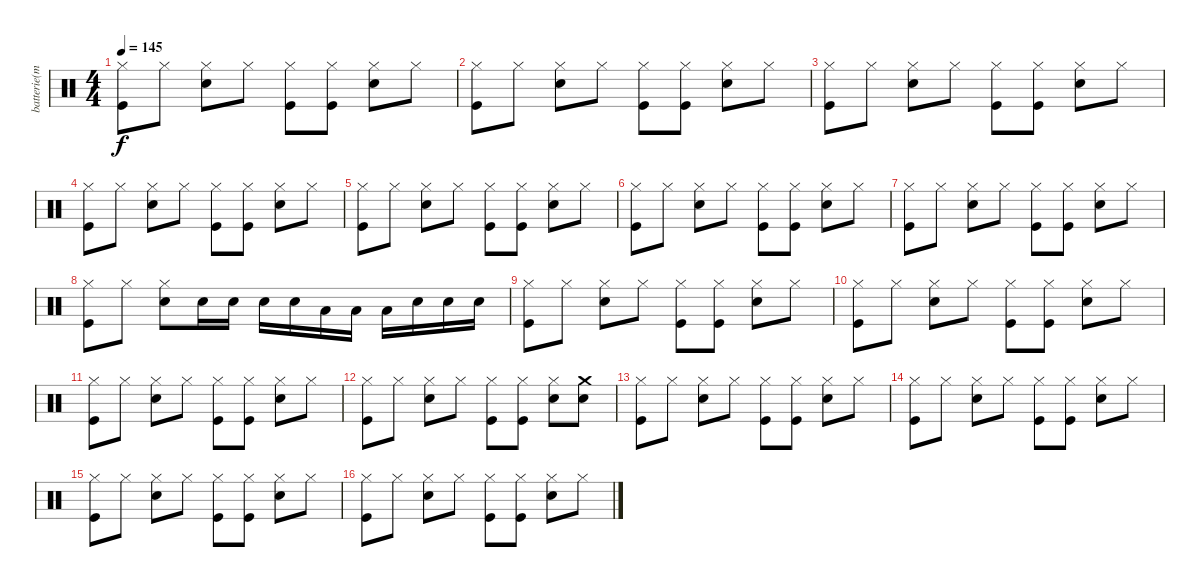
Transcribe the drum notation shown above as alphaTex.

\track ("batterie(micky)" "batterie(m") {instrument percussion}
\staff {score}
\articulation defaults
\ts (4 4)
\tempo 145
\clef neutral
\ks c
("Hi-Hat (closed)" "Kick (hit)").8{dy f} "Hi-Hat (closed)".8 ("Hi-Hat (closed)" "Snare (hit) 2").8 "Hi-Hat (closed)".8 ("Hi-Hat (closed)" "Kick (hit)").8 ("Hi-Hat (closed)" "Kick (hit)").8 ("Hi-Hat (closed)" "Snare (hit) 2").8 "Hi-Hat (closed)".8 |
("Hi-Hat (closed)" "Kick (hit)").8 "Hi-Hat (closed)".8 ("Hi-Hat (closed)" "Snare (hit) 2").8 "Hi-Hat (closed)".8 ("Hi-Hat (closed)" "Kick (hit)").8 ("Hi-Hat (closed)" "Kick (hit)").8 ("Hi-Hat (closed)" "Snare (hit) 2").8 "Hi-Hat (closed)".8 |
("Hi-Hat (closed)" "Kick (hit)").8 "Hi-Hat (closed)".8 ("Hi-Hat (closed)" "Snare (hit) 2").8 "Hi-Hat (closed)".8 ("Hi-Hat (closed)" "Kick (hit)").8 ("Hi-Hat (closed)" "Kick (hit)").8 ("Hi-Hat (closed)" "Snare (hit) 2").8 "Hi-Hat (closed)".8 |
("Hi-Hat (closed)" "Kick (hit)").8 "Hi-Hat (closed)".8 ("Hi-Hat (closed)" "Snare (hit) 2").8 "Hi-Hat (closed)".8 ("Hi-Hat (closed)" "Kick (hit)").8 ("Hi-Hat (closed)" "Kick (hit)").8 ("Hi-Hat (closed)" "Snare (hit) 2").8 "Hi-Hat (closed)".8 |
("Hi-Hat (closed)" "Kick (hit)").8 "Hi-Hat (closed)".8 ("Hi-Hat (closed)" "Snare (hit) 2").8 "Hi-Hat (closed)".8 ("Hi-Hat (closed)" "Kick (hit)").8 ("Hi-Hat (closed)" "Kick (hit)").8 ("Hi-Hat (closed)" "Snare (hit) 2").8 "Hi-Hat (closed)".8 |
("Hi-Hat (closed)" "Kick (hit)").8 "Hi-Hat (closed)".8 ("Hi-Hat (closed)" "Snare (hit) 2").8 "Hi-Hat (closed)".8 ("Hi-Hat (closed)" "Kick (hit)").8 ("Hi-Hat (closed)" "Kick (hit)").8 ("Hi-Hat (closed)" "Snare (hit) 2").8 "Hi-Hat (closed)".8 |
("Hi-Hat (closed)" "Kick (hit)").8 "Hi-Hat (closed)".8 ("Hi-Hat (closed)" "Snare (hit) 2").8 "Hi-Hat (closed)".8 ("Hi-Hat (closed)" "Kick (hit)").8 ("Hi-Hat (closed)" "Kick (hit)").8 ("Hi-Hat (closed)" "Snare (hit) 2").8 "Hi-Hat (closed)".8 |
("Hi-Hat (closed)" "Kick (hit)").8 "Hi-Hat (closed)".8 ("Hi-Hat (closed)" "Snare (hit) 2").8 "Snare (hit) 2".16 "Snare (hit) 2".16 "Snare (hit) 2".16 "Snare (hit) 2".16 "Low Tom (hit)".16 "Low Tom (hit)".16 "Low Tom (hit)".16 "Snare (hit) 2".16 "Snare (hit) 2".16 "Snare (hit) 2".16 |
("Hi-Hat (closed)" "Kick (hit)").8 "Hi-Hat (closed)".8 ("Hi-Hat (closed)" "Snare (hit) 2").8 "Hi-Hat (closed)".8 ("Hi-Hat (closed)" "Kick (hit)").8 ("Hi-Hat (closed)" "Kick (hit)").8 ("Hi-Hat (closed)" "Snare (hit) 2").8 "Hi-Hat (closed)".8 |
("Hi-Hat (closed)" "Kick (hit)").8 "Hi-Hat (closed)".8 ("Hi-Hat (closed)" "Snare (hit) 2").8 "Hi-Hat (closed)".8 ("Hi-Hat (closed)" "Kick (hit)").8 ("Hi-Hat (closed)" "Kick (hit)").8 ("Hi-Hat (closed)" "Snare (hit) 2").8 "Hi-Hat (closed)".8 |
("Hi-Hat (closed)" "Kick (hit)").8 "Hi-Hat (closed)".8 ("Hi-Hat (closed)" "Snare (hit) 2").8 "Hi-Hat (closed)".8 ("Hi-Hat (closed)" "Kick (hit)").8 ("Hi-Hat (closed)" "Kick (hit)").8 ("Hi-Hat (closed)" "Snare (hit) 2").8 "Hi-Hat (closed)".8 |
("Hi-Hat (closed)" "Kick (hit)").8 "Hi-Hat (closed)".8 ("Hi-Hat (closed)" "Snare (hit) 2").8 "Hi-Hat (closed)".8 ("Hi-Hat (closed)" "Kick (hit)").8 ("Hi-Hat (closed)" "Kick (hit)").8 ("Hi-Hat (closed)" "Snare (hit) 2").8 ("Crash medium (hit)" "Snare (hit) 2").8 |
("Hi-Hat (closed)" "Kick (hit)").8 "Hi-Hat (closed)".8 ("Hi-Hat (closed)" "Snare (hit) 2").8 "Hi-Hat (closed)".8 ("Hi-Hat (closed)" "Kick (hit)").8 ("Hi-Hat (closed)" "Kick (hit)").8 ("Hi-Hat (closed)" "Snare (hit) 2").8 "Hi-Hat (closed)".8 |
("Hi-Hat (closed)" "Kick (hit)").8 "Hi-Hat (closed)".8 ("Hi-Hat (closed)" "Snare (hit) 2").8 "Hi-Hat (closed)".8 ("Hi-Hat (closed)" "Kick (hit)").8 ("Hi-Hat (closed)" "Kick (hit)").8 ("Hi-Hat (closed)" "Snare (hit) 2").8 "Hi-Hat (closed)".8 |
("Hi-Hat (closed)" "Kick (hit)").8 "Hi-Hat (closed)".8 ("Hi-Hat (closed)" "Snare (hit) 2").8 "Hi-Hat (closed)".8 ("Hi-Hat (closed)" "Kick (hit)").8 ("Hi-Hat (closed)" "Kick (hit)").8 ("Hi-Hat (closed)" "Snare (hit) 2").8 "Hi-Hat (closed)".8 |
("Hi-Hat (closed)" "Kick (hit)").8 "Hi-Hat (closed)".8 ("Hi-Hat (closed)" "Snare (hit) 2").8 "Hi-Hat (closed)".8 ("Hi-Hat (closed)" "Kick (hit)").8 ("Hi-Hat (closed)" "Kick (hit)").8 ("Hi-Hat (closed)" "Snare (hit) 2").8 "Hi-Hat (closed)".8
